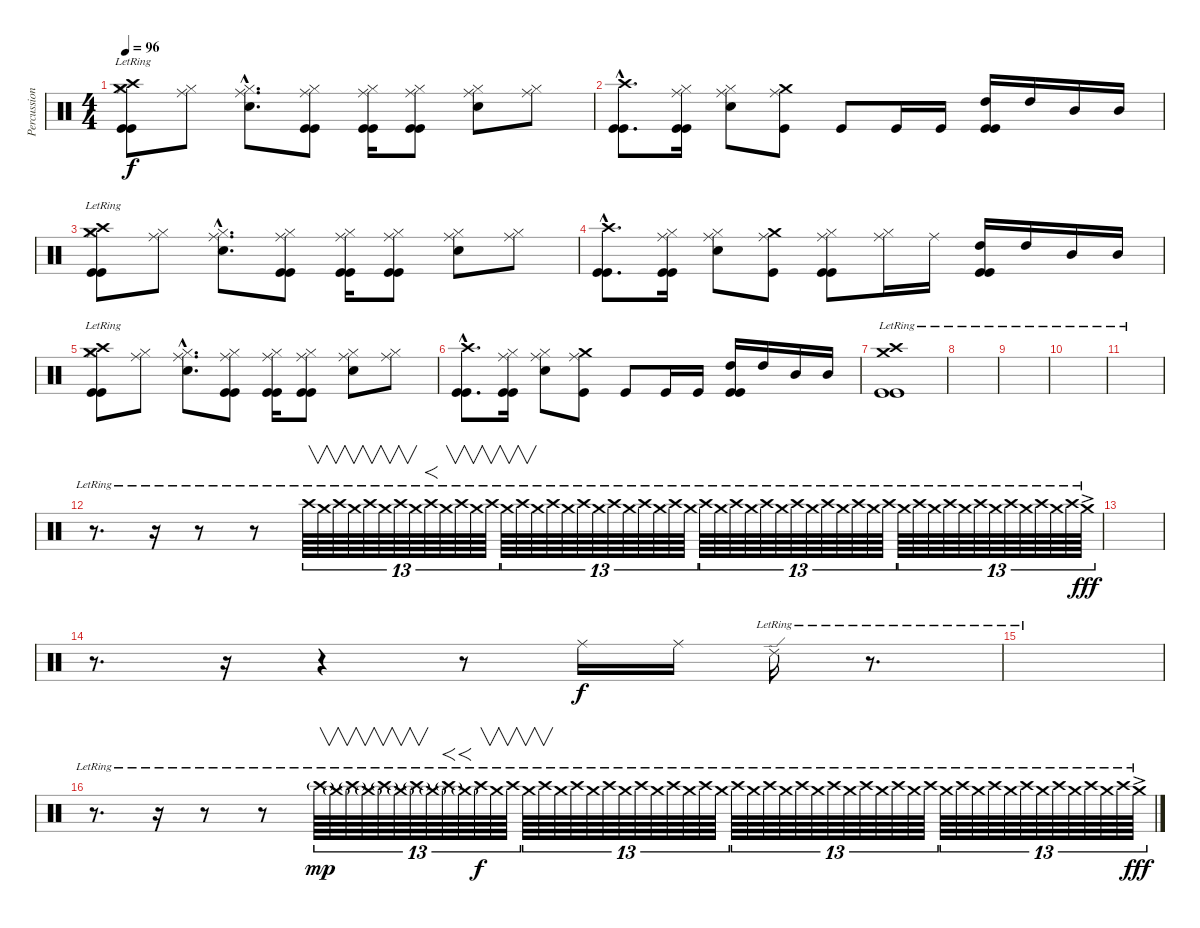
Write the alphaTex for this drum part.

\track ("Percussion" "Percussion") {instrument percussion}
\staff {score}
\articulation defaults
\ts (4 4)
\tempo 96
\clef neutral
\ks c
("Hi-Hat (closed)" "Kick (hit)" "Kick (hit)" "Crash high (hit)"{lr} "Crash medium (hit)"{lr}).8{dy f} ("Hi-Hat (closed)" "Ride (middle)").8 ("Hi-Hat (closed)"{hac} "Snare (hit) 2"{hac} "Ride (middle)"{hac}).8{d} ("Hi-Hat (closed)" "Kick (hit)" "Kick (hit)" "Ride (middle)").8 ("Hi-Hat (closed)" "Kick (hit)" "Kick (hit)" "Ride (middle)").16 ("Hi-Hat (closed)" "Kick (hit)" "Kick (hit)" "Ride (middle)").8 ("Hi-Hat (closed)" "Snare (hit) 2" "Ride (middle)").8 ("Hi-Hat (closed)" "Ride (middle)").8 |
("Kick (hit)"{hac} "Kick (hit)"{hac} "Crash high (hit)"{hac}).8{d} ("Hi-Hat (closed)" "Kick (hit)" "Kick (hit)" "Ride (middle)").16 ("Hi-Hat (closed)" "Snare (hit) 2" "Ride (middle)").8 ("Crash medium (hit)" "Kick (hit)" "Ride (middle)").8 "Kick (hit)".8 "Kick (hit)".16 "Kick (hit)".16 ("Kick (hit)" "Kick (hit)" "High Tom (hit)").16 "High Tom (hit)".16 "Mid Tom (hit)".16 "Mid Tom (hit)".16 |
("Hi-Hat (closed)" "Kick (hit)" "Kick (hit)" "Crash high (hit)"{lr} "Crash medium (hit)"{lr}).8 ("Hi-Hat (closed)" "Ride (middle)").8 ("Hi-Hat (closed)"{hac} "Snare (hit) 2"{hac} "Ride (middle)"{hac}).8{d} ("Hi-Hat (closed)" "Kick (hit)" "Kick (hit)" "Ride (middle)").8 ("Hi-Hat (closed)" "Kick (hit)" "Kick (hit)" "Ride (middle)").16 ("Hi-Hat (closed)" "Kick (hit)" "Kick (hit)" "Ride (middle)").8 ("Hi-Hat (closed)" "Snare (hit) 2" "Ride (middle)").8 ("Hi-Hat (closed)" "Ride (middle)").8 |
("Kick (hit)"{hac} "Kick (hit)"{hac} "Crash high (hit)"{hac}).8{d} ("Hi-Hat (closed)" "Kick (hit)" "Kick (hit)" "Ride (middle)").16 ("Hi-Hat (closed)" "Snare (hit) 2" "Ride (middle)").8 ("Crash medium (hit)" "Kick (hit)" "Ride (middle)").8 ("Hi-Hat (closed)" "Kick (hit)" "Kick (hit)" "Ride (middle)").8 ("Hi-Hat (closed)" "Ride (middle)").16 "Ride (middle)".16 ("Kick (hit)" "Kick (hit)" "High Tom (hit)").16 "High Tom (hit)".16 "Mid Tom (hit)".16 "Mid Tom (hit)".16 |
("Hi-Hat (closed)" "Kick (hit)" "Kick (hit)" "Crash high (hit)"{lr} "Crash medium (hit)"{lr}).8 ("Hi-Hat (closed)" "Ride (middle)").8 ("Hi-Hat (closed)"{hac} "Snare (hit) 2"{hac} "Ride (middle)"{hac}).8{d} ("Hi-Hat (closed)" "Kick (hit)" "Kick (hit)" "Ride (middle)").8 ("Hi-Hat (closed)" "Kick (hit)" "Kick (hit)" "Ride (middle)").16 ("Hi-Hat (closed)" "Kick (hit)" "Kick (hit)" "Ride (middle)").8 ("Hi-Hat (closed)" "Snare (hit) 2" "Ride (middle)").8 ("Hi-Hat (closed)" "Ride (middle)").8 |
("Kick (hit)"{hac} "Kick (hit)"{hac} "Crash high (hit)"{hac}).8{d} ("Hi-Hat (closed)" "Kick (hit)" "Kick (hit)" "Ride (middle)").16 ("Hi-Hat (closed)" "Snare (hit) 2" "Ride (middle)").8 ("Crash medium (hit)" "Kick (hit)" "Ride (middle)").8 "Kick (hit)".8 "Kick (hit)".16 "Kick (hit)".16 ("Kick (hit)" "Kick (hit)" "High Tom (hit)").16 "High Tom (hit)".16 "Mid Tom (hit)".16 "Mid Tom (hit)".16 |
("Crash medium (hit)"{lr} "Crash high (hit)"{lr} "Kick (hit)" "Kick (hit)").1 |
|
|
|
|
r.8{d} r.16 r.8 r.8 "Crash high (hit)"{lr}.64{v tu (13 8)} "Crash medium (hit)"{lr}.64{v tu (13 8)} "Crash high (hit)"{lr}.64{v tu (13 8)} "Crash medium (hit)"{lr}.64{v tu (13 8)} "Crash high (hit)"{lr}.64{v tu (13 8)} "Crash medium (hit)"{lr}.64{v tu (13 8)} "Crash high (hit)"{lr}.64{v tu (13 8)} "Crash medium (hit)"{lr}.64{v tu (13 8)} "Crash high (hit)"{lr}.64{f tu (13 8)} "Crash medium (hit)"{lr}.64{v tu (13 8)} "Crash high (hit)"{lr}.64{v tu (13 8)} "Crash medium (hit)"{lr}.64{v tu (13 8)} "Crash high (hit)"{lr}.64{v tu (13 8)} "Crash medium (hit)"{lr}.64{v tu (13 8)} "Crash high (hit)"{lr}.64{v tu (13 8)} "Crash medium (hit)"{lr}.64{v tu (13 8)} "Crash high (hit)"{lr}.64{tu (13 8)} "Crash medium (hit)"{lr}.64{tu (13 8)} "Crash high (hit)"{lr}.64{tu (13 8)} "Crash medium (hit)"{lr}.64{tu (13 8)} "Crash high (hit)"{lr}.64{tu (13 8)} "Crash medium (hit)"{lr}.64{tu (13 8)} "Crash high (hit)"{lr}.64{tu (13 8)} "Crash medium (hit)"{lr}.64{tu (13 8)} "Crash high (hit)"{lr}.64{tu (13 8)} "Crash medium (hit)"{lr}.64{tu (13 8)} "Crash high (hit)"{lr}.64{tu (13 8)} "Crash medium (hit)"{lr}.64{tu (13 8)} "Crash high (hit)"{lr}.64{tu (13 8)} "Crash medium (hit)"{lr}.64{tu (13 8)} "Crash high (hit)"{lr}.64{tu (13 8)} "Crash medium (hit)"{lr}.64{tu (13 8)} "Crash high (hit)"{lr}.64{tu (13 8)} "Crash medium (hit)"{lr}.64{tu (13 8)} "Crash high (hit)"{lr}.64{tu (13 8)} "Crash medium (hit)"{lr}.64{tu (13 8)} "Crash high (hit)"{lr}.64{tu (13 8)} "Crash medium (hit)"{lr}.64{tu (13 8)} "Crash high (hit)"{lr}.64{tu (13 8)} "Crash medium (hit)"{lr}.64{tu (13 8)} "Crash high (hit)"{lr}.64{tu (13 8)} "Crash medium (hit)"{lr}.64{tu (13 8)} "Crash high (hit)"{lr}.64{tu (13 8)} "Crash medium (hit)"{lr}.64{tu (13 8)} "Crash high (hit)"{lr}.64{tu (13 8)} "Crash medium (hit)"{lr}.64{tu (13 8)} "Crash high (hit)"{lr}.64{tu (13 8)} "Crash medium (hit)"{lr}.64{tu (13 8)} "Crash high (hit)"{lr}.64{tu (13 8)} "Crash medium (hit)"{lr}.64{tu (13 8)} "Crash high (hit)"{lr}.64{tu (13 8)} "Crash medium (hit)"{ac lr}.64{tu (13 8) dy fff} |
|
r.8{d} r.16 r.4 r.8 "Ride (middle)".16{dy f} "Ride (middle)".16 "Ride (edge) 2"{lr}.16 r.8{d} |
|
r.8{d} r.16 r.8 r.8 "Crash high (hit)"{g lr}.64{v tu (13 8) dy mp} "Crash medium (hit)"{g lr}.64{v tu (13 8)} "Crash high (hit)"{g lr}.64{v tu (13 8)} "Crash medium (hit)"{g lr}.64{v tu (13 8)} "Crash high (hit)"{g lr}.64{v tu (13 8)} "Crash medium (hit)"{g lr}.64{v tu (13 8)} "Crash high (hit)"{g lr}.64{v tu (13 8)} "Crash medium (hit)"{g lr}.64{v tu (13 8)} "Crash high (hit)"{g lr}.64{f tu (13 8)} "Crash medium (hit)"{g lr}.64{f tu (13 8)} "Crash high (hit)"{lr}.64{v tu (13 8) dy f} "Crash medium (hit)"{lr}.64{v tu (13 8)} "Crash high (hit)"{lr}.64{v tu (13 8)} "Crash medium (hit)"{lr}.64{v tu (13 8)} "Crash high (hit)"{lr}.64{v tu (13 8)} "Crash medium (hit)"{lr}.64{v tu (13 8)} "Crash high (hit)"{lr}.64{tu (13 8)} "Crash medium (hit)"{lr}.64{tu (13 8)} "Crash high (hit)"{lr}.64{tu (13 8)} "Crash medium (hit)"{lr}.64{tu (13 8)} "Crash high (hit)"{lr}.64{tu (13 8)} "Crash medium (hit)"{lr}.64{tu (13 8)} "Crash high (hit)"{lr}.64{tu (13 8)} "Crash medium (hit)"{lr}.64{tu (13 8)} "Crash high (hit)"{lr}.64{tu (13 8)} "Crash medium (hit)"{lr}.64{tu (13 8)} "Crash high (hit)"{lr}.64{tu (13 8)} "Crash medium (hit)"{lr}.64{tu (13 8)} "Crash high (hit)"{lr}.64{tu (13 8)} "Crash medium (hit)"{lr}.64{tu (13 8)} "Crash high (hit)"{lr}.64{tu (13 8)} "Crash medium (hit)"{lr}.64{tu (13 8)} "Crash high (hit)"{lr}.64{tu (13 8)} "Crash medium (hit)"{lr}.64{tu (13 8)} "Crash high (hit)"{lr}.64{tu (13 8)} "Crash medium (hit)"{lr}.64{tu (13 8)} "Crash high (hit)"{lr}.64{tu (13 8)} "Crash medium (hit)"{lr}.64{tu (13 8)} "Crash high (hit)"{lr}.64{tu (13 8)} "Crash medium (hit)"{lr}.64{tu (13 8)} "Crash high (hit)"{lr}.64{tu (13 8)} "Crash medium (hit)"{lr}.64{tu (13 8)} "Crash high (hit)"{lr}.64{tu (13 8)} "Crash medium (hit)"{lr}.64{tu (13 8)} "Crash high (hit)"{lr}.64{tu (13 8)} "Crash medium (hit)"{lr}.64{tu (13 8)} "Crash high (hit)"{lr}.64{tu (13 8)} "Crash medium (hit)"{lr}.64{tu (13 8)} "Crash high (hit)"{lr}.64{tu (13 8)} "Crash medium (hit)"{lr}.64{tu (13 8)} "Crash high (hit)"{lr}.64{tu (13 8)} "Crash medium (hit)"{ac lr}.64{tu (13 8) dy fff}
